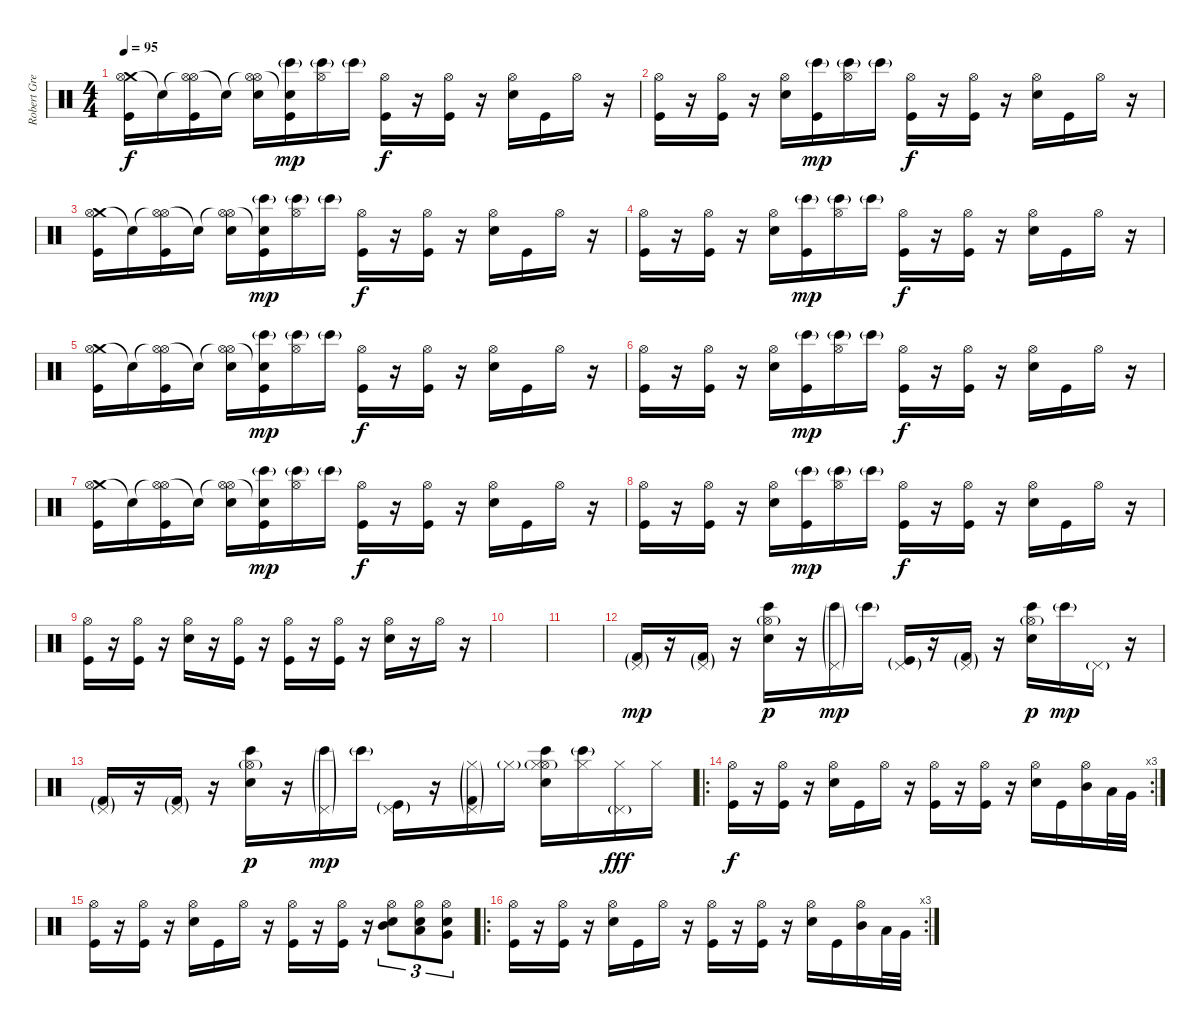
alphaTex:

\track ("Robert Gregory Bourdan" "Robert Gre") {instrument percussion}
\staff {score}
\articulation defaults
\ts (4 4)
\tempo 95
\clef neutral
\ks c
("Crash medium (hit)" "Hi-Hat (open)" "Kick (hit)").16{dy f} "Snare (hit)"{t}.16 ("Hi-Hat (open)"{t} "Hi-Hat (open)" "Kick (hit)").16 "Snare (hit)"{t}.16 ("Hi-Hat (open)"{t} "Hi-Hat (open)" "Electric Snare (hit)").16 ("Snare (hit)"{t} "Kick (hit)" "Bongo High (hit)"{g}).16{dy mp} ("Hi-Hat (open)" "Bongo High (hit)"{g}).16 "Bongo High (hit)"{g}.16 ("Hi-Hat (open)" "Kick (hit)").16{dy f} r.16 ("Hi-Hat (open)" "Kick (hit)").16 r.16 ("Hi-Hat (open)" "Electric Snare (hit)").16 "Kick (hit)".16 "Hi-Hat (open)".16 r.16 |
("Hi-Hat (open)" "Kick (hit)").16 r.16 ("Hi-Hat (open)" "Kick (hit)").16 r.16 ("Hi-Hat (open)" "Electric Snare (hit)").16 ("Kick (hit)" "Bongo High (hit)"{g}).16{dy mp} ("Hi-Hat (open)" "Bongo High (hit)"{g}).16 "Bongo High (hit)"{g}.16 ("Hi-Hat (open)" "Kick (hit)").16{dy f} r.16 ("Hi-Hat (open)" "Kick (hit)").16 r.16 ("Hi-Hat (open)" "Electric Snare (hit)").16 "Kick (hit)".16 "Hi-Hat (open)".16 r.16 |
("Crash medium (hit)" "Hi-Hat (open)" "Kick (hit)").16 "Snare (hit)"{t}.16 ("Hi-Hat (open)"{t} "Hi-Hat (open)" "Kick (hit)").16 "Snare (hit)"{t}.16 ("Hi-Hat (open)"{t} "Hi-Hat (open)" "Electric Snare (hit)").16 ("Snare (hit)"{t} "Kick (hit)" "Bongo High (hit)"{g}).16{dy mp} ("Hi-Hat (open)" "Bongo High (hit)"{g}).16 "Bongo High (hit)"{g}.16 ("Hi-Hat (open)" "Kick (hit)").16{dy f} r.16 ("Hi-Hat (open)" "Kick (hit)").16 r.16 ("Hi-Hat (open)" "Electric Snare (hit)").16 "Kick (hit)".16 "Hi-Hat (open)".16 r.16 |
("Hi-Hat (open)" "Kick (hit)").16 r.16 ("Hi-Hat (open)" "Kick (hit)").16 r.16 ("Hi-Hat (open)" "Electric Snare (hit)").16 ("Kick (hit)" "Bongo High (hit)"{g}).16{dy mp} ("Hi-Hat (open)" "Bongo High (hit)"{g}).16 "Bongo High (hit)"{g}.16 ("Hi-Hat (open)" "Kick (hit)").16{dy f} r.16 ("Hi-Hat (open)" "Kick (hit)").16 r.16 ("Hi-Hat (open)" "Electric Snare (hit)").16 "Kick (hit)".16 "Hi-Hat (open)".16 r.16 |
("Crash medium (hit)" "Hi-Hat (open)" "Kick (hit)").16 "Snare (hit)"{t}.16 ("Hi-Hat (open)"{t} "Hi-Hat (open)" "Kick (hit)").16 "Snare (hit)"{t}.16 ("Hi-Hat (open)"{t} "Hi-Hat (open)" "Electric Snare (hit)").16 ("Snare (hit)"{t} "Kick (hit)" "Bongo High (hit)"{g}).16{dy mp} ("Hi-Hat (open)" "Bongo High (hit)"{g}).16 "Bongo High (hit)"{g}.16 ("Hi-Hat (open)" "Kick (hit)").16{dy f} r.16 ("Hi-Hat (open)" "Kick (hit)").16 r.16 ("Hi-Hat (open)" "Electric Snare (hit)").16 "Kick (hit)".16 "Hi-Hat (open)".16 r.16 |
("Hi-Hat (open)" "Kick (hit)").16 r.16 ("Hi-Hat (open)" "Kick (hit)").16 r.16 ("Hi-Hat (open)" "Electric Snare (hit)").16 ("Kick (hit)" "Bongo High (hit)"{g}).16{dy mp} ("Hi-Hat (open)" "Bongo High (hit)"{g}).16 "Bongo High (hit)"{g}.16 ("Hi-Hat (open)" "Kick (hit)").16{dy f} r.16 ("Hi-Hat (open)" "Kick (hit)").16 r.16 ("Hi-Hat (open)" "Electric Snare (hit)").16 "Kick (hit)".16 "Hi-Hat (open)".16 r.16 |
("Crash medium (hit)" "Hi-Hat (open)" "Kick (hit)").16 "Snare (hit)"{t}.16 ("Hi-Hat (open)"{t} "Hi-Hat (open)" "Kick (hit)").16 "Snare (hit)"{t}.16 ("Hi-Hat (open)"{t} "Hi-Hat (open)" "Electric Snare (hit)").16 ("Snare (hit)"{t} "Kick (hit)" "Bongo High (hit)"{g}).16{dy mp} ("Hi-Hat (open)" "Bongo High (hit)"{g}).16 "Bongo High (hit)"{g}.16 ("Hi-Hat (open)" "Kick (hit)").16{dy f} r.16 ("Hi-Hat (open)" "Kick (hit)").16 r.16 ("Hi-Hat (open)" "Electric Snare (hit)").16 "Kick (hit)".16 "Hi-Hat (open)".16 r.16 |
("Hi-Hat (open)" "Kick (hit)").16 r.16 ("Hi-Hat (open)" "Kick (hit)").16 r.16 ("Hi-Hat (open)" "Electric Snare (hit)").16 ("Kick (hit)" "Bongo High (hit)"{g}).16{dy mp} ("Hi-Hat (open)" "Bongo High (hit)"{g}).16 "Bongo High (hit)"{g}.16 ("Hi-Hat (open)" "Kick (hit)").16{dy f} r.16 ("Hi-Hat (open)" "Kick (hit)").16 r.16 ("Hi-Hat (open)" "Electric Snare (hit)").16 "Kick (hit)".16 "Hi-Hat (open)".16 r.16 |
("Hi-Hat (open)" "Kick (hit)").16 r.16 ("Hi-Hat (open)" "Kick (hit)").16 r.16 ("Hi-Hat (open)" "Electric Snare (hit)").16 r.16 ("Hi-Hat (open)" "Kick (hit)").16 r.16 ("Hi-Hat (open)" "Kick (hit)").16 r.16 ("Hi-Hat (open)" "Kick (hit)").16 r.16 ("Hi-Hat (open)" "Electric Snare (hit)").16 r.16 "Hi-Hat (open)".16 r.16 |
|
|
("Pedal Hi-Hat (hit)"{g} "Kick (hit) 2"{g}).16{dy mp volume 10} r.16 ("Pedal Hi-Hat (hit)"{g} "Kick (hit) 2"{g}).16 r.16 ("Hi-Hat (open)"{g} "Bongo High (hit)" "Hand Clap (hit)").16{dy p} r.16 ("Pedal Hi-Hat (hit)"{g} "Bongo High (hit)"{g}).16{dy mp} "Bongo High (hit)"{g}.16 ("Pedal Hi-Hat (hit)"{g} "Kick (hit)"{g}).16 r.16 ("Pedal Hi-Hat (hit)"{g} "Kick (hit) 2"{g}).16 r.16 ("Hi-Hat (open)"{g} "Bongo High (hit)" "Hand Clap (hit)").16{dy p} "Bongo High (hit)"{g}.16{dy mp} "Pedal Hi-Hat (hit)"{g}.16 r.16 |
("Pedal Hi-Hat (hit)"{g} "Kick (hit) 2"{g}).16 r.16 ("Pedal Hi-Hat (hit)"{g} "Kick (hit) 2"{g}).16 r.16 ("Hi-Hat (open)"{g} "Bongo High (hit)" "Hand Clap (hit)").16{dy p} r.16 ("Pedal Hi-Hat (hit)"{g} "Bongo High (hit)"{g}).16{dy mp} "Bongo High (hit)"{g}.16 ("Pedal Hi-Hat (hit)"{g} "Kick (hit)"{g}).16 r.16 ("Pedal Hi-Hat (hit)"{g} "Kick (hit) 2"{g} "Hi-Hat (closed)"{g}).16 "Hi-Hat (closed)"{g}.16 ("Hi-Hat (open)"{g} "Bongo High (hit)" "Hand Clap (hit)" "Hi-Hat (closed)"{g}).16 ("Bongo High (hit)"{g} "Hi-Hat (closed)").16 ("Pedal Hi-Hat (hit)"{g} "Hi-Hat (closed)").16{dy fff} "Hi-Hat (closed)".16 |
\ro
\rc 3
("Hi-Hat (open)" "Kick (hit)").16{dy f volume 12} r.16 ("Hi-Hat (open)" "Kick (hit)").16 r.16 ("Hi-Hat (open)" "Electric Snare (hit)").16 "Kick (hit)".16 "Hi-Hat (open)".16 r.16 ("Hi-Hat (open)" "Kick (hit)").16 r.16 ("Hi-Hat (open)" "Kick (hit)").16 r.16 ("Hi-Hat (open)" "Electric Snare (hit)").16 "Kick (hit)".16 ("Hi-Hat (open)" "Mid Tom (hit)").16 "Low Tom (hit)".32 "Very Low Tom (hit)".32 |
("Hi-Hat (open)" "Kick (hit)").16 r.16 ("Hi-Hat (open)" "Kick (hit)").16 r.16 ("Hi-Hat (open)" "Electric Snare (hit)").16 "Kick (hit)".16 "Hi-Hat (open)".16 r.16 ("Hi-Hat (open)" "Kick (hit)").16 r.16 ("Hi-Hat (open)" "Kick (hit)").16 r.16 ("Hi-Hat (open)" "Mid Tom (hit)" "Electric Snare (hit)").8{tu (3 2)} ("Hi-Hat (open)" "Low Tom (hit)" "Electric Snare (hit)").8{tu (3 2)} ("Hi-Hat (open)" "Very Low Tom (hit)" "Electric Snare (hit)").8{tu (3 2)} |
\ro
\rc 3
("Hi-Hat (open)" "Kick (hit)").16 r.16 ("Hi-Hat (open)" "Kick (hit)").16 r.16 ("Hi-Hat (open)" "Electric Snare (hit)").16 "Kick (hit)".16 "Hi-Hat (open)".16 r.16 ("Hi-Hat (open)" "Kick (hit)").16 r.16 ("Hi-Hat (open)" "Kick (hit)").16 r.16 ("Hi-Hat (open)" "Electric Snare (hit)").16 "Kick (hit)".16 ("Hi-Hat (open)" "Mid Tom (hit)").16 "Low Tom (hit)".32 "Very Low Tom (hit)".32
